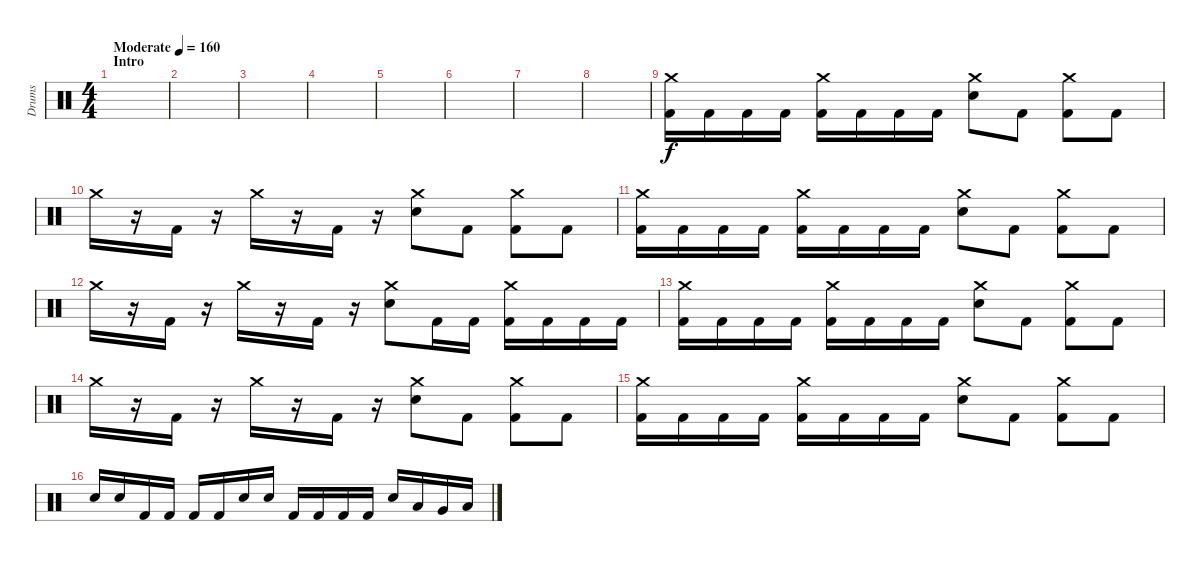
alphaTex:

\track ("Drums" "Drums") {instrument percussion}
\staff {score}
\articulation defaults
\ts (4 4)
\section ("" "Intro")
\tempo (160 "Moderate")
\clef neutral
\ks c
|
|
|
|
|
|
|
|
("Crash medium (hit)" "Kick (hit) 2").16 "Kick (hit) 2".16 "Kick (hit) 2".16 "Kick (hit) 2".16 ("Crash medium (hit)" "Kick (hit) 2").16 "Kick (hit) 2".16 "Kick (hit) 2".16 "Kick (hit) 2".16 ("Crash medium (hit)" "Snare (hit) 2").8 "Kick (hit) 2".8 ("Crash medium (hit)" "Kick (hit) 2").8 "Kick (hit) 2".8 |
"Crash medium (hit)".16 r.16 "Kick (hit) 2".16 r.16 "Crash medium (hit)".16 r.16 "Kick (hit) 2".16 r.16 ("Crash medium (hit)" "Snare (hit) 2").8 "Kick (hit) 2".8 ("Crash medium (hit)" "Kick (hit) 2").8 "Kick (hit) 2".8 |
("Crash medium (hit)" "Kick (hit) 2").16 "Kick (hit) 2".16 "Kick (hit) 2".16 "Kick (hit) 2".16 ("Crash medium (hit)" "Kick (hit) 2").16 "Kick (hit) 2".16 "Kick (hit) 2".16 "Kick (hit) 2".16 ("Crash medium (hit)" "Snare (hit) 2").8 "Kick (hit) 2".8 ("Crash medium (hit)" "Kick (hit) 2").8 "Kick (hit) 2".8 |
"Crash medium (hit)".16 r.16 "Kick (hit) 2".16 r.16 "Crash medium (hit)".16 r.16 "Kick (hit) 2".16 r.16 ("Crash medium (hit)" "Snare (hit) 2").8 "Kick (hit) 2".16 "Kick (hit) 2".16 ("Crash medium (hit)" "Kick (hit) 2").16 "Kick (hit) 2".16 "Kick (hit) 2".16 "Kick (hit) 2".16 |
("Crash medium (hit)" "Kick (hit) 2").16 "Kick (hit) 2".16 "Kick (hit) 2".16 "Kick (hit) 2".16 ("Crash medium (hit)" "Kick (hit) 2").16 "Kick (hit) 2".16 "Kick (hit) 2".16 "Kick (hit) 2".16 ("Crash medium (hit)" "Snare (hit) 2").8 "Kick (hit) 2".8 ("Crash medium (hit)" "Kick (hit) 2").8 "Kick (hit) 2".8 |
"Crash medium (hit)".16 r.16 "Kick (hit) 2".16 r.16 "Crash medium (hit)".16 r.16 "Kick (hit) 2".16 r.16 ("Crash medium (hit)" "Snare (hit) 2").8 "Kick (hit) 2".8 ("Crash medium (hit)" "Kick (hit) 2").8 "Kick (hit) 2".8 |
("Crash medium (hit)" "Kick (hit) 2").16 "Kick (hit) 2".16 "Kick (hit) 2".16 "Kick (hit) 2".16 ("Crash medium (hit)" "Kick (hit) 2").16 "Kick (hit) 2".16 "Kick (hit) 2".16 "Kick (hit) 2".16 ("Crash medium (hit)" "Snare (hit) 2").8 "Kick (hit) 2".8 ("Crash medium (hit)" "Kick (hit) 2").8 "Kick (hit) 2".8 |
"Snare (hit) 2".16 "Snare (hit) 2".16 "Kick (hit) 2".16 "Kick (hit) 2".16 "Kick (hit) 2".16 "Kick (hit) 2".16 "Snare (hit) 2".16 "Snare (hit) 2".16 "Kick (hit) 2".16 "Kick (hit) 2".16 "Kick (hit) 2".16 "Kick (hit) 2".16 "Snare (hit) 2".16 "Low Tom (hit)".16 "Very Low Tom (hit)".16 "Low Floor Tom (hit)".16
